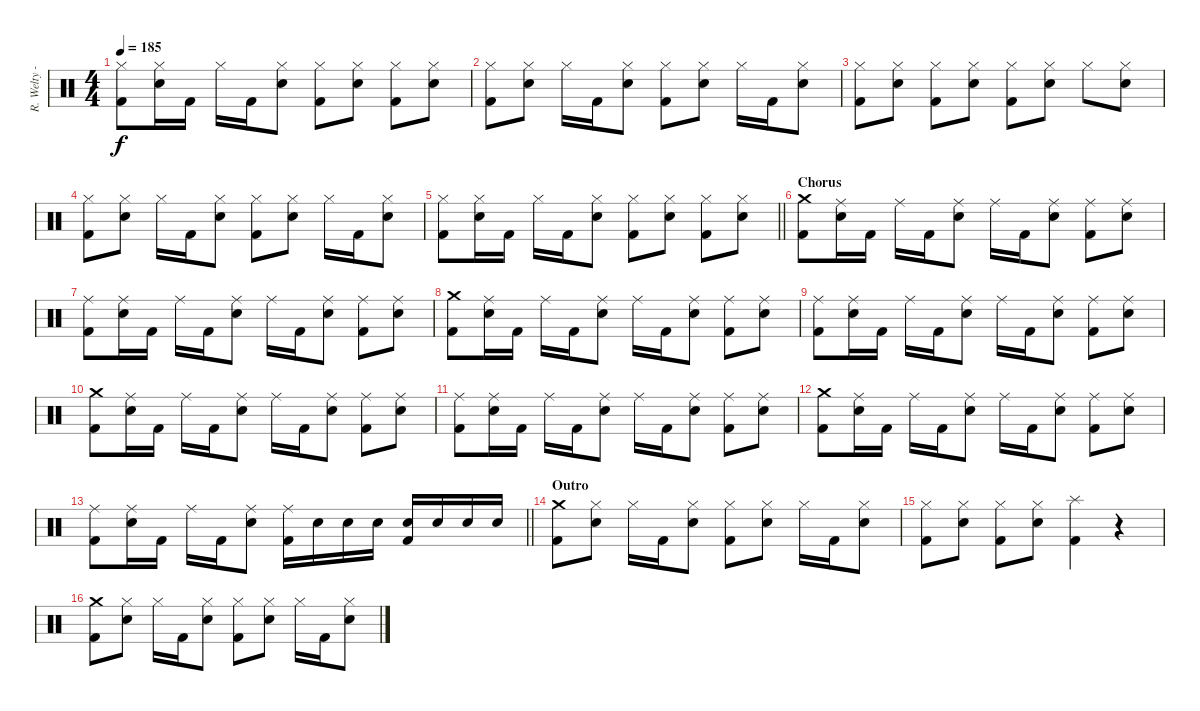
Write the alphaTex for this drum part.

\track ("R. Welty - Drums" "R. Welty -") {instrument percussion}
\staff {score}
\articulation defaults
\ts (4 4)
\tempo 185
\clef neutral
\ks c
("Hi-Hat (closed)" "Kick (hit) 2").8{dy f} ("Hi-Hat (closed)" "Electric Snare (hit)").16 "Kick (hit) 2".16 "Hi-Hat (closed)".16 "Kick (hit) 2".16 ("Hi-Hat (closed)" "Electric Snare (hit)").8 ("Hi-Hat (closed)" "Kick (hit) 2").8 ("Hi-Hat (closed)" "Electric Snare (hit)").8 ("Hi-Hat (closed)" "Kick (hit) 2").8 ("Hi-Hat (closed)" "Electric Snare (hit)").8 |
("Hi-Hat (closed)" "Kick (hit) 2").8 ("Hi-Hat (closed)" "Electric Snare (hit)").8 "Hi-Hat (closed)".16 "Kick (hit) 2".16 ("Hi-Hat (closed)" "Electric Snare (hit)").8 ("Hi-Hat (closed)" "Kick (hit) 2").8 ("Hi-Hat (closed)" "Electric Snare (hit)").8 "Hi-Hat (closed)".16 "Kick (hit) 2".16 ("Hi-Hat (closed)" "Electric Snare (hit)").8 |
("Hi-Hat (closed)" "Kick (hit) 2").8 ("Hi-Hat (closed)" "Electric Snare (hit)").8 ("Hi-Hat (closed)" "Kick (hit) 2").8 ("Hi-Hat (closed)" "Electric Snare (hit)").8 ("Hi-Hat (closed)" "Kick (hit) 2").8 ("Hi-Hat (closed)" "Electric Snare (hit)").8 "Hi-Hat (closed)".8 ("Hi-Hat (closed)" "Electric Snare (hit)").8 |
("Hi-Hat (closed)" "Kick (hit) 2").8 ("Hi-Hat (closed)" "Electric Snare (hit)").8 "Hi-Hat (closed)".16 "Kick (hit) 2".16 ("Hi-Hat (closed)" "Electric Snare (hit)").8 ("Hi-Hat (closed)" "Kick (hit) 2").8 ("Hi-Hat (closed)" "Electric Snare (hit)").8 "Hi-Hat (closed)".16 "Kick (hit) 2".16 ("Hi-Hat (closed)" "Electric Snare (hit)").8 |
\barLineRight lightlight
("Hi-Hat (closed)" "Kick (hit) 2").8 ("Hi-Hat (closed)" "Electric Snare (hit)").16 "Kick (hit) 2".16 "Hi-Hat (closed)".16 "Kick (hit) 2".16 ("Hi-Hat (closed)" "Electric Snare (hit)").8 ("Hi-Hat (closed)" "Kick (hit) 2").8 ("Hi-Hat (closed)" "Electric Snare (hit)").8 ("Hi-Hat (closed)" "Kick (hit) 2").8 ("Hi-Hat (closed)" "Electric Snare (hit)").8 |
\section ("" "Chorus")
("Crash medium (hit)" "Kick (hit) 2").8 ("Ride (middle)" "Electric Snare (hit)").16 "Kick (hit) 2".16 "Ride (middle)".16 "Kick (hit) 2".16 ("Ride (middle)" "Electric Snare (hit)").8 "Ride (middle)".16 "Kick (hit) 2".16 ("Ride (middle)" "Electric Snare (hit)").8 ("Ride (middle)" "Kick (hit) 2").8 ("Ride (middle)" "Electric Snare (hit)").8 |
("Ride (middle)" "Kick (hit) 2").8 ("Ride (middle)" "Electric Snare (hit)").16 "Kick (hit) 2".16 "Ride (middle)".16 "Kick (hit) 2".16 ("Ride (middle)" "Electric Snare (hit)").8 "Ride (middle)".16 "Kick (hit) 2".16 ("Ride (middle)" "Electric Snare (hit)").8 ("Ride (middle)" "Kick (hit) 2").8 ("Ride (middle)" "Electric Snare (hit)").8 |
("Crash medium (hit)" "Kick (hit) 2").8 ("Ride (middle)" "Electric Snare (hit)").16 "Kick (hit) 2".16 "Ride (middle)".16 "Kick (hit) 2".16 ("Ride (middle)" "Electric Snare (hit)").8 "Ride (middle)".16 "Kick (hit) 2".16 ("Ride (middle)" "Electric Snare (hit)").8 ("Ride (middle)" "Kick (hit) 2").8 ("Ride (middle)" "Electric Snare (hit)").8 |
("Ride (middle)" "Kick (hit) 2").8 ("Ride (middle)" "Electric Snare (hit)").16 "Kick (hit) 2".16 "Ride (middle)".16 "Kick (hit) 2".16 ("Ride (middle)" "Electric Snare (hit)").8 "Ride (middle)".16 "Kick (hit) 2".16 ("Ride (middle)" "Electric Snare (hit)").8 ("Ride (middle)" "Kick (hit) 2").8 ("Ride (middle)" "Electric Snare (hit)").8 |
("Crash medium (hit)" "Kick (hit) 2").8 ("Ride (middle)" "Electric Snare (hit)").16 "Kick (hit) 2".16 "Ride (middle)".16 "Kick (hit) 2".16 ("Ride (middle)" "Electric Snare (hit)").8 "Ride (middle)".16 "Kick (hit) 2".16 ("Ride (middle)" "Electric Snare (hit)").8 ("Ride (middle)" "Kick (hit) 2").8 ("Ride (middle)" "Electric Snare (hit)").8 |
("Ride (middle)" "Kick (hit) 2").8 ("Ride (middle)" "Electric Snare (hit)").16 "Kick (hit) 2".16 "Ride (middle)".16 "Kick (hit) 2".16 ("Ride (middle)" "Electric Snare (hit)").8 "Ride (middle)".16 "Kick (hit) 2".16 ("Ride (middle)" "Electric Snare (hit)").8 ("Ride (middle)" "Kick (hit) 2").8 ("Ride (middle)" "Electric Snare (hit)").8 |
("Crash medium (hit)" "Kick (hit) 2").8 ("Ride (middle)" "Electric Snare (hit)").16 "Kick (hit) 2".16 "Ride (middle)".16 "Kick (hit) 2".16 ("Ride (middle)" "Electric Snare (hit)").8 "Ride (middle)".16 "Kick (hit) 2".16 ("Ride (middle)" "Electric Snare (hit)").8 ("Ride (middle)" "Kick (hit) 2").8 ("Ride (middle)" "Electric Snare (hit)").8 |
\barLineRight lightlight
("Ride (middle)" "Kick (hit) 2").8 ("Ride (middle)" "Electric Snare (hit)").16 "Kick (hit) 2".16 "Ride (middle)".16 "Kick (hit) 2".16 ("Ride (middle)" "Electric Snare (hit)").8 ("Ride (middle)" "Kick (hit) 2").16 "Electric Snare (hit)".16 "Electric Snare (hit)".16 "Electric Snare (hit)".16 ("Electric Snare (hit)" "Kick (hit) 2").16 "Electric Snare (hit)".16 "Electric Snare (hit)".16 "Electric Snare (hit)".16 |
\section ("" "Outro")
("Crash medium (hit)" "Kick (hit) 2").8 ("Hi-Hat (closed)" "Electric Snare (hit)").8 "Hi-Hat (closed)".16 "Kick (hit) 2".16 ("Hi-Hat (closed)" "Electric Snare (hit)").8 ("Hi-Hat (closed)" "Kick (hit) 2").8 ("Hi-Hat (closed)" "Electric Snare (hit)").8 "Hi-Hat (closed)".16 "Kick (hit) 2".16 ("Hi-Hat (closed)" "Electric Snare (hit)").8 |
("Hi-Hat (closed)" "Kick (hit) 2").8 ("Hi-Hat (closed)" "Electric Snare (hit)").8 ("Hi-Hat (closed)" "Kick (hit) 2").8 ("Hi-Hat (closed)" "Electric Snare (hit)").8 ("Splash (hit)" "Kick (hit) 2").4 r.4 |
("Crash medium (hit)" "Kick (hit) 2").8 ("Hi-Hat (closed)" "Electric Snare (hit)").8 "Hi-Hat (closed)".16 "Kick (hit) 2".16 ("Hi-Hat (closed)" "Electric Snare (hit)").8 ("Hi-Hat (closed)" "Kick (hit) 2").8 ("Hi-Hat (closed)" "Electric Snare (hit)").8 "Hi-Hat (closed)".16 "Kick (hit) 2".16 ("Hi-Hat (closed)" "Electric Snare (hit)").8
